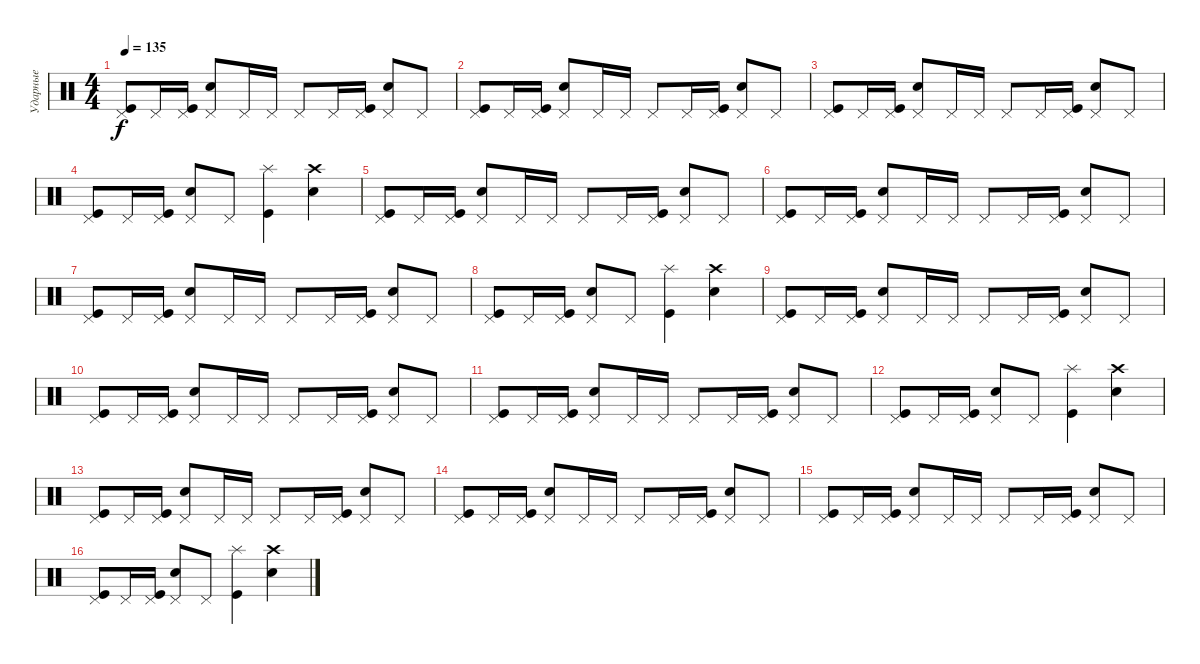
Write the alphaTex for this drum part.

\track ("Ударные" "Ударные") {instrument percussion}
\staff {score}
\articulation defaults
\ts (4 4)
\tempo 135
\clef neutral
\ks c
("Pedal Hi-Hat (hit)" "Kick (hit)").8{dy f} "Pedal Hi-Hat (hit)".16 ("Pedal Hi-Hat (hit)" "Kick (hit)").16 ("Pedal Hi-Hat (hit)" "Snare (hit) 2").8 "Pedal Hi-Hat (hit)".16 "Pedal Hi-Hat (hit)".16 "Pedal Hi-Hat (hit)".8 "Pedal Hi-Hat (hit)".16 ("Pedal Hi-Hat (hit)" "Kick (hit)").16 ("Pedal Hi-Hat (hit)" "Snare (hit) 2").8 "Pedal Hi-Hat (hit)".8 |
("Pedal Hi-Hat (hit)" "Kick (hit)").8 "Pedal Hi-Hat (hit)".16 ("Pedal Hi-Hat (hit)" "Kick (hit)").16 ("Pedal Hi-Hat (hit)" "Snare (hit) 2").8 "Pedal Hi-Hat (hit)".16 "Pedal Hi-Hat (hit)".16 "Pedal Hi-Hat (hit)".8 "Pedal Hi-Hat (hit)".16 ("Pedal Hi-Hat (hit)" "Kick (hit)").16 ("Pedal Hi-Hat (hit)" "Snare (hit) 2").8 "Pedal Hi-Hat (hit)".8 |
("Pedal Hi-Hat (hit)" "Kick (hit)").8 "Pedal Hi-Hat (hit)".16 ("Pedal Hi-Hat (hit)" "Kick (hit)").16 ("Pedal Hi-Hat (hit)" "Snare (hit) 2").8 "Pedal Hi-Hat (hit)".16 "Pedal Hi-Hat (hit)".16 "Pedal Hi-Hat (hit)".8 "Pedal Hi-Hat (hit)".16 ("Pedal Hi-Hat (hit)" "Kick (hit)").16 ("Pedal Hi-Hat (hit)" "Snare (hit) 2").8 "Pedal Hi-Hat (hit)".8 |
("Pedal Hi-Hat (hit)" "Kick (hit)").8 "Pedal Hi-Hat (hit)".16 ("Pedal Hi-Hat (hit)" "Kick (hit)").16 ("Pedal Hi-Hat (hit)" "Snare (hit) 2").8 "Pedal Hi-Hat (hit)".8 ("Splash (hit)" "Kick (hit)").4 ("Crash high (hit)" "Snare (hit) 2").4 |
("Pedal Hi-Hat (hit)" "Kick (hit)").8 "Pedal Hi-Hat (hit)".16 ("Pedal Hi-Hat (hit)" "Kick (hit)").16 ("Pedal Hi-Hat (hit)" "Snare (hit) 2").8 "Pedal Hi-Hat (hit)".16 "Pedal Hi-Hat (hit)".16 "Pedal Hi-Hat (hit)".8 "Pedal Hi-Hat (hit)".16 ("Pedal Hi-Hat (hit)" "Kick (hit)").16 ("Pedal Hi-Hat (hit)" "Snare (hit) 2").8 "Pedal Hi-Hat (hit)".8 |
("Pedal Hi-Hat (hit)" "Kick (hit)").8 "Pedal Hi-Hat (hit)".16 ("Pedal Hi-Hat (hit)" "Kick (hit)").16 ("Pedal Hi-Hat (hit)" "Snare (hit) 2").8 "Pedal Hi-Hat (hit)".16 "Pedal Hi-Hat (hit)".16 "Pedal Hi-Hat (hit)".8 "Pedal Hi-Hat (hit)".16 ("Pedal Hi-Hat (hit)" "Kick (hit)").16 ("Pedal Hi-Hat (hit)" "Snare (hit) 2").8 "Pedal Hi-Hat (hit)".8 |
("Pedal Hi-Hat (hit)" "Kick (hit)").8 "Pedal Hi-Hat (hit)".16 ("Pedal Hi-Hat (hit)" "Kick (hit)").16 ("Pedal Hi-Hat (hit)" "Snare (hit) 2").8 "Pedal Hi-Hat (hit)".16 "Pedal Hi-Hat (hit)".16 "Pedal Hi-Hat (hit)".8 "Pedal Hi-Hat (hit)".16 ("Pedal Hi-Hat (hit)" "Kick (hit)").16 ("Pedal Hi-Hat (hit)" "Snare (hit) 2").8 "Pedal Hi-Hat (hit)".8 |
("Pedal Hi-Hat (hit)" "Kick (hit)").8 "Pedal Hi-Hat (hit)".16 ("Pedal Hi-Hat (hit)" "Kick (hit)").16 ("Pedal Hi-Hat (hit)" "Snare (hit) 2").8 "Pedal Hi-Hat (hit)".8 ("Splash (hit)" "Kick (hit)").4 ("Crash high (hit)" "Snare (hit) 2").4 |
("Pedal Hi-Hat (hit)" "Kick (hit)").8 "Pedal Hi-Hat (hit)".16 ("Pedal Hi-Hat (hit)" "Kick (hit)").16 ("Pedal Hi-Hat (hit)" "Snare (hit) 2").8 "Pedal Hi-Hat (hit)".16 "Pedal Hi-Hat (hit)".16 "Pedal Hi-Hat (hit)".8 "Pedal Hi-Hat (hit)".16 ("Pedal Hi-Hat (hit)" "Kick (hit)").16 ("Pedal Hi-Hat (hit)" "Snare (hit) 2").8 "Pedal Hi-Hat (hit)".8 |
("Pedal Hi-Hat (hit)" "Kick (hit)").8 "Pedal Hi-Hat (hit)".16 ("Pedal Hi-Hat (hit)" "Kick (hit)").16 ("Pedal Hi-Hat (hit)" "Snare (hit) 2").8 "Pedal Hi-Hat (hit)".16 "Pedal Hi-Hat (hit)".16 "Pedal Hi-Hat (hit)".8 "Pedal Hi-Hat (hit)".16 ("Pedal Hi-Hat (hit)" "Kick (hit)").16 ("Pedal Hi-Hat (hit)" "Snare (hit) 2").8 "Pedal Hi-Hat (hit)".8 |
("Pedal Hi-Hat (hit)" "Kick (hit)").8 "Pedal Hi-Hat (hit)".16 ("Pedal Hi-Hat (hit)" "Kick (hit)").16 ("Pedal Hi-Hat (hit)" "Snare (hit) 2").8 "Pedal Hi-Hat (hit)".16 "Pedal Hi-Hat (hit)".16 "Pedal Hi-Hat (hit)".8 "Pedal Hi-Hat (hit)".16 ("Pedal Hi-Hat (hit)" "Kick (hit)").16 ("Pedal Hi-Hat (hit)" "Snare (hit) 2").8 "Pedal Hi-Hat (hit)".8 |
("Pedal Hi-Hat (hit)" "Kick (hit)").8 "Pedal Hi-Hat (hit)".16 ("Pedal Hi-Hat (hit)" "Kick (hit)").16 ("Pedal Hi-Hat (hit)" "Snare (hit) 2").8 "Pedal Hi-Hat (hit)".8 ("Splash (hit)" "Kick (hit)").4 ("Crash high (hit)" "Snare (hit) 2").4 |
("Pedal Hi-Hat (hit)" "Kick (hit)").8 "Pedal Hi-Hat (hit)".16 ("Pedal Hi-Hat (hit)" "Kick (hit)").16 ("Pedal Hi-Hat (hit)" "Snare (hit) 2").8 "Pedal Hi-Hat (hit)".16 "Pedal Hi-Hat (hit)".16 "Pedal Hi-Hat (hit)".8 "Pedal Hi-Hat (hit)".16 ("Pedal Hi-Hat (hit)" "Kick (hit)").16 ("Pedal Hi-Hat (hit)" "Snare (hit) 2").8 "Pedal Hi-Hat (hit)".8 |
("Pedal Hi-Hat (hit)" "Kick (hit)").8 "Pedal Hi-Hat (hit)".16 ("Pedal Hi-Hat (hit)" "Kick (hit)").16 ("Pedal Hi-Hat (hit)" "Snare (hit) 2").8 "Pedal Hi-Hat (hit)".16 "Pedal Hi-Hat (hit)".16 "Pedal Hi-Hat (hit)".8 "Pedal Hi-Hat (hit)".16 ("Pedal Hi-Hat (hit)" "Kick (hit)").16 ("Pedal Hi-Hat (hit)" "Snare (hit) 2").8 "Pedal Hi-Hat (hit)".8 |
("Pedal Hi-Hat (hit)" "Kick (hit)").8 "Pedal Hi-Hat (hit)".16 ("Pedal Hi-Hat (hit)" "Kick (hit)").16 ("Pedal Hi-Hat (hit)" "Snare (hit) 2").8 "Pedal Hi-Hat (hit)".16 "Pedal Hi-Hat (hit)".16 "Pedal Hi-Hat (hit)".8 "Pedal Hi-Hat (hit)".16 ("Pedal Hi-Hat (hit)" "Kick (hit)").16 ("Pedal Hi-Hat (hit)" "Snare (hit) 2").8 "Pedal Hi-Hat (hit)".8 |
("Pedal Hi-Hat (hit)" "Kick (hit)").8 "Pedal Hi-Hat (hit)".16 ("Pedal Hi-Hat (hit)" "Kick (hit)").16 ("Pedal Hi-Hat (hit)" "Snare (hit) 2").8 "Pedal Hi-Hat (hit)".8 ("Splash (hit)" "Kick (hit)").4 ("Crash high (hit)" "Snare (hit) 2").4
